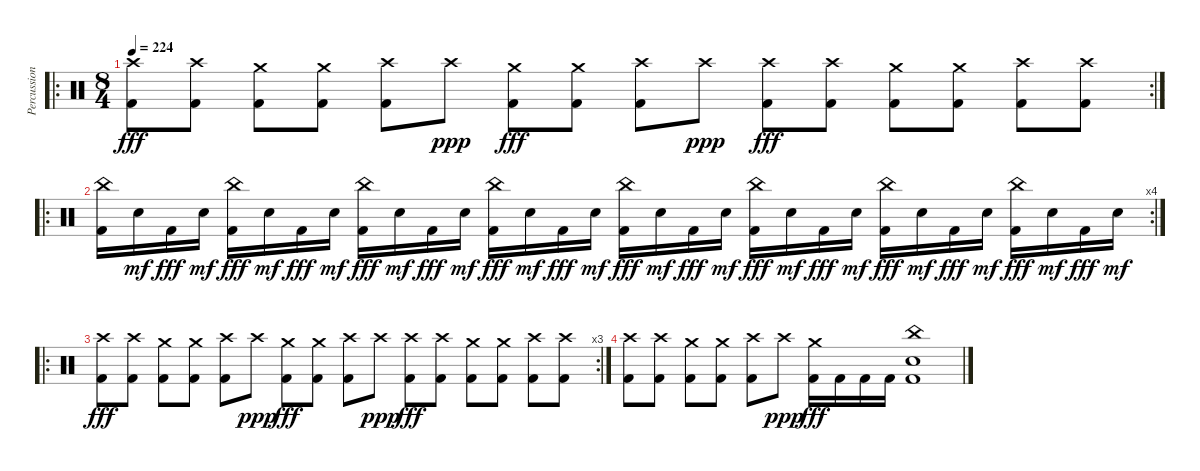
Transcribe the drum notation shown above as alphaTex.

\track ("Percussion" "Percussion") {instrument percussion}
\staff {score}
\articulation defaults
\ro
\rc 2
\ts (8 4)
\tempo 224
\clef neutral
\ks c
("Crash high (hit)" "Kick (hit) 2").8{dy fff} ("Crash high (hit)" "Kick (hit) 2").8 ("Crash medium (hit)" "Kick (hit) 2").8 ("Crash medium (hit)" "Kick (hit) 2").8 ("Crash high (hit)" "Kick (hit) 2").8 "Crash high (hit)".8{dy ppp} ("Crash medium (hit)" "Kick (hit) 2").8{dy fff} ("Crash medium (hit)" "Kick (hit) 2").8 ("Crash high (hit)" "Kick (hit) 2").8 "Crash high (hit)".8{dy ppp} ("Crash high (hit)" "Kick (hit) 2").8{dy fff} ("Crash high (hit)" "Kick (hit) 2").8 ("Crash medium (hit)" "Kick (hit) 2").8 ("Crash medium (hit)" "Kick (hit) 2").8 ("Crash high (hit)" "Kick (hit) 2").8 ("Crash high (hit)" "Kick (hit) 2").8 |
\ro
\rc 4
("China (hit)" "Kick (hit) 2").16 "Electric Snare (hit)".16{dy mf} "Kick (hit) 2".16{dy fff} "Electric Snare (hit)".16{dy mf} ("China (hit)" "Kick (hit) 2").16{dy fff} "Electric Snare (hit)".16{dy mf} "Kick (hit) 2".16{dy fff} "Electric Snare (hit)".16{dy mf} ("China (hit)" "Kick (hit) 2").16{dy fff} "Electric Snare (hit)".16{dy mf} "Kick (hit) 2".16{dy fff} "Electric Snare (hit)".16{dy mf} ("China (hit)" "Kick (hit) 2").16{dy fff} "Electric Snare (hit)".16{dy mf} "Kick (hit) 2".16{dy fff} "Electric Snare (hit)".16{dy mf} ("China (hit)" "Kick (hit) 2").16{dy fff} "Electric Snare (hit)".16{dy mf} "Kick (hit) 2".16{dy fff} "Electric Snare (hit)".16{dy mf} ("China (hit)" "Kick (hit) 2").16{dy fff} "Electric Snare (hit)".16{dy mf} "Kick (hit) 2".16{dy fff} "Electric Snare (hit)".16{dy mf} ("China (hit)" "Kick (hit) 2").16{dy fff} "Electric Snare (hit)".16{dy mf} "Kick (hit) 2".16{dy fff} "Electric Snare (hit)".16{dy mf} ("China (hit)" "Kick (hit) 2").16{dy fff} "Electric Snare (hit)".16{dy mf} "Kick (hit) 2".16{dy fff} "Electric Snare (hit)".16{dy mf} |
\ro
\rc 3
("Crash high (hit)" "Kick (hit) 2").8{dy fff} ("Crash high (hit)" "Kick (hit) 2").8 ("Crash medium (hit)" "Kick (hit) 2").8 ("Crash medium (hit)" "Kick (hit) 2").8 ("Crash high (hit)" "Kick (hit) 2").8 "Crash high (hit)".8{dy ppp} ("Crash medium (hit)" "Kick (hit) 2").8{dy fff} ("Crash medium (hit)" "Kick (hit) 2").8 ("Crash high (hit)" "Kick (hit) 2").8 "Crash high (hit)".8{dy ppp} ("Crash high (hit)" "Kick (hit) 2").8{dy fff} ("Crash high (hit)" "Kick (hit) 2").8 ("Crash medium (hit)" "Kick (hit) 2").8 ("Crash medium (hit)" "Kick (hit) 2").8 ("Crash high (hit)" "Kick (hit) 2").8 ("Crash high (hit)" "Kick (hit) 2").8 |
("Crash high (hit)" "Kick (hit) 2").8 ("Crash high (hit)" "Kick (hit) 2").8 ("Crash medium (hit)" "Kick (hit) 2").8 ("Crash medium (hit)" "Kick (hit) 2").8 ("Crash high (hit)" "Kick (hit) 2").8 "Crash high (hit)".8{dy ppp} ("Crash medium (hit)" "Kick (hit) 2").16{dy fff} "Kick (hit) 2".16 "Kick (hit) 2".16 "Kick (hit) 2".16 ("China (hit)" "Electric Snare (hit)" "Kick (hit) 2").1
